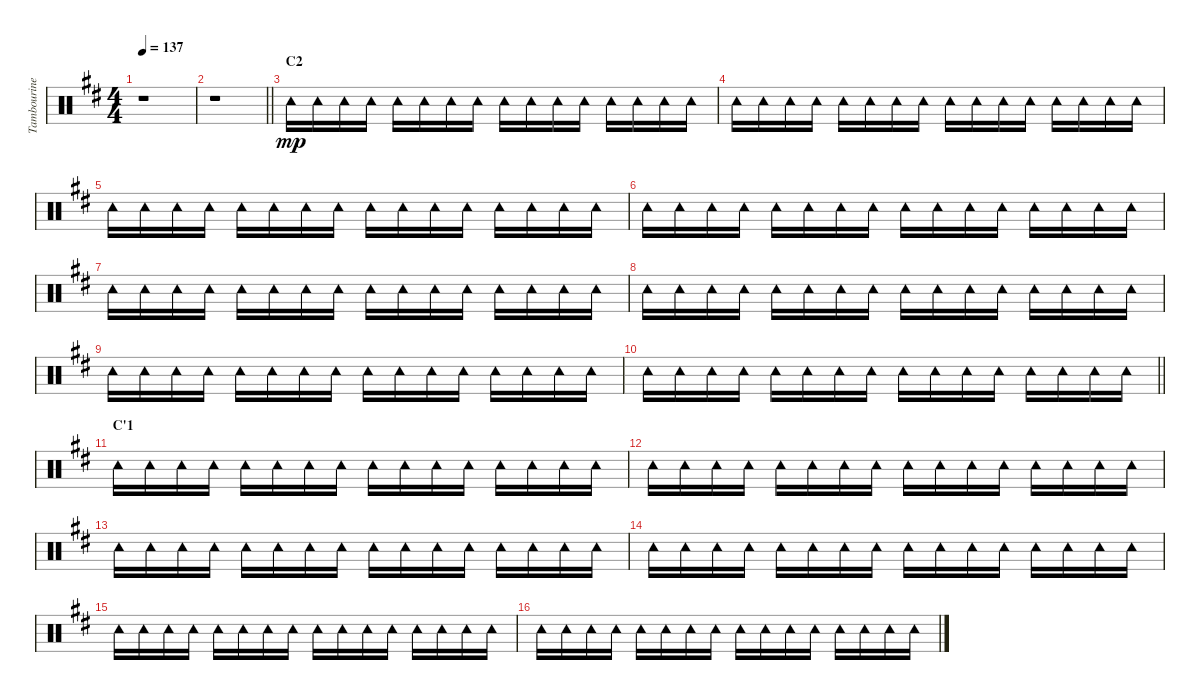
\track ("Tambourine" "Tambourine") {instrument percussion}
\staff {score}
\articulation defaults
\ts (4 4)
\tempo 137
\clef neutral
\ks d
r.1{dy mp} |
\barLineRight lightlight
r.1 |
\section ("" "C2")
"Tambourine (hit)".16 "Tambourine (hit)".16 "Tambourine (hit)".16 "Tambourine (hit)".16 "Tambourine (hit)".16 "Tambourine (hit)".16 "Tambourine (hit)".16 "Tambourine (hit)".16 "Tambourine (hit)".16 "Tambourine (hit)".16 "Tambourine (hit)".16 "Tambourine (hit)".16 "Tambourine (hit)".16 "Tambourine (hit)".16 "Tambourine (hit)".16 "Tambourine (hit)".16 |
"Tambourine (hit)".16 "Tambourine (hit)".16 "Tambourine (hit)".16 "Tambourine (hit)".16 "Tambourine (hit)".16 "Tambourine (hit)".16 "Tambourine (hit)".16 "Tambourine (hit)".16 "Tambourine (hit)".16 "Tambourine (hit)".16 "Tambourine (hit)".16 "Tambourine (hit)".16 "Tambourine (hit)".16 "Tambourine (hit)".16 "Tambourine (hit)".16 "Tambourine (hit)".16 |
"Tambourine (hit)".16 "Tambourine (hit)".16 "Tambourine (hit)".16 "Tambourine (hit)".16 "Tambourine (hit)".16 "Tambourine (hit)".16 "Tambourine (hit)".16 "Tambourine (hit)".16 "Tambourine (hit)".16 "Tambourine (hit)".16 "Tambourine (hit)".16 "Tambourine (hit)".16 "Tambourine (hit)".16 "Tambourine (hit)".16 "Tambourine (hit)".16 "Tambourine (hit)".16 |
"Tambourine (hit)".16 "Tambourine (hit)".16 "Tambourine (hit)".16 "Tambourine (hit)".16 "Tambourine (hit)".16 "Tambourine (hit)".16 "Tambourine (hit)".16 "Tambourine (hit)".16 "Tambourine (hit)".16 "Tambourine (hit)".16 "Tambourine (hit)".16 "Tambourine (hit)".16 "Tambourine (hit)".16 "Tambourine (hit)".16 "Tambourine (hit)".16 "Tambourine (hit)".16 |
"Tambourine (hit)".16 "Tambourine (hit)".16 "Tambourine (hit)".16 "Tambourine (hit)".16 "Tambourine (hit)".16 "Tambourine (hit)".16 "Tambourine (hit)".16 "Tambourine (hit)".16 "Tambourine (hit)".16 "Tambourine (hit)".16 "Tambourine (hit)".16 "Tambourine (hit)".16 "Tambourine (hit)".16 "Tambourine (hit)".16 "Tambourine (hit)".16 "Tambourine (hit)".16 |
"Tambourine (hit)".16 "Tambourine (hit)".16 "Tambourine (hit)".16 "Tambourine (hit)".16 "Tambourine (hit)".16 "Tambourine (hit)".16 "Tambourine (hit)".16 "Tambourine (hit)".16 "Tambourine (hit)".16 "Tambourine (hit)".16 "Tambourine (hit)".16 "Tambourine (hit)".16 "Tambourine (hit)".16 "Tambourine (hit)".16 "Tambourine (hit)".16 "Tambourine (hit)".16 |
"Tambourine (hit)".16 "Tambourine (hit)".16 "Tambourine (hit)".16 "Tambourine (hit)".16 "Tambourine (hit)".16 "Tambourine (hit)".16 "Tambourine (hit)".16 "Tambourine (hit)".16 "Tambourine (hit)".16 "Tambourine (hit)".16 "Tambourine (hit)".16 "Tambourine (hit)".16 "Tambourine (hit)".16 "Tambourine (hit)".16 "Tambourine (hit)".16 "Tambourine (hit)".16 |
\barLineRight lightlight "Tambourine (hit)".16 "Tambourine (hit)".16 "Tambourine (hit)".16 "Tambourine (hit)".16 "Tambourine (hit)".16 "Tambourine (hit)".16 "Tambourine (hit)".16 "Tambourine (hit)".16 "Tambourine (hit)".16 "Tambourine (hit)".16 "Tambourine (hit)".16 "Tambourine (hit)".16 "Tambourine (hit)".16 "Tambourine (hit)".16 "Tambourine (hit)".16 "Tambourine (hit)".16
|
\section ("" "C'1")
"Tambourine (hit)".16 "Tambourine (hit)".16 "Tambourine (hit)".16 "Tambourine (hit)".16 "Tambourine (hit)".16 "Tambourine (hit)".16 "Tambourine (hit)".16 "Tambourine (hit)".16 "Tambourine (hit)".16 "Tambourine (hit)".16 "Tambourine (hit)".16 "Tambourine (hit)".16 "Tambourine (hit)".16 "Tambourine (hit)".16 "Tambourine (hit)".16 "Tambourine (hit)".16 |
"Tambourine (hit)".16 "Tambourine (hit)".16 "Tambourine (hit)".16 "Tambourine (hit)".16 "Tambourine (hit)".16 "Tambourine (hit)".16 "Tambourine (hit)".16 "Tambourine (hit)".16 "Tambourine (hit)".16 "Tambourine (hit)".16 "Tambourine (hit)".16 "Tambourine (hit)".16 "Tambourine (hit)".16 "Tambourine (hit)".16 "Tambourine (hit)".16 "Tambourine (hit)".16 |
"Tambourine (hit)".16 "Tambourine (hit)".16 "Tambourine (hit)".16 "Tambourine (hit)".16 "Tambourine (hit)".16 "Tambourine (hit)".16 "Tambourine (hit)".16 "Tambourine (hit)".16 "Tambourine (hit)".16 "Tambourine (hit)".16 "Tambourine (hit)".16 "Tambourine (hit)".16 "Tambourine (hit)".16 "Tambourine (hit)".16 "Tambourine (hit)".16 "Tambourine (hit)".16 |
"Tambourine (hit)".16 "Tambourine (hit)".16 "Tambourine (hit)".16 "Tambourine (hit)".16 "Tambourine (hit)".16 "Tambourine (hit)".16 "Tambourine (hit)".16 "Tambourine (hit)".16 "Tambourine (hit)".16 "Tambourine (hit)".16 "Tambourine (hit)".16 "Tambourine (hit)".16 "Tambourine (hit)".16 "Tambourine (hit)".16 "Tambourine (hit)".16 "Tambourine (hit)".16 |
"Tambourine (hit)".16 "Tambourine (hit)".16 "Tambourine (hit)".16 "Tambourine (hit)".16 "Tambourine (hit)".16 "Tambourine (hit)".16 "Tambourine (hit)".16 "Tambourine (hit)".16 "Tambourine (hit)".16 "Tambourine (hit)".16 "Tambourine (hit)".16 "Tambourine (hit)".16 "Tambourine (hit)".16 "Tambourine (hit)".16 "Tambourine (hit)".16 "Tambourine (hit)".16 |
"Tambourine (hit)".16 "Tambourine (hit)".16 "Tambourine (hit)".16 "Tambourine (hit)".16 "Tambourine (hit)".16 "Tambourine (hit)".16 "Tambourine (hit)".16 "Tambourine (hit)".16 "Tambourine (hit)".16 "Tambourine (hit)".16 "Tambourine (hit)".16 "Tambourine (hit)".16 "Tambourine (hit)".16 "Tambourine (hit)".16 "Tambourine (hit)".16 "Tambourine (hit)".16
